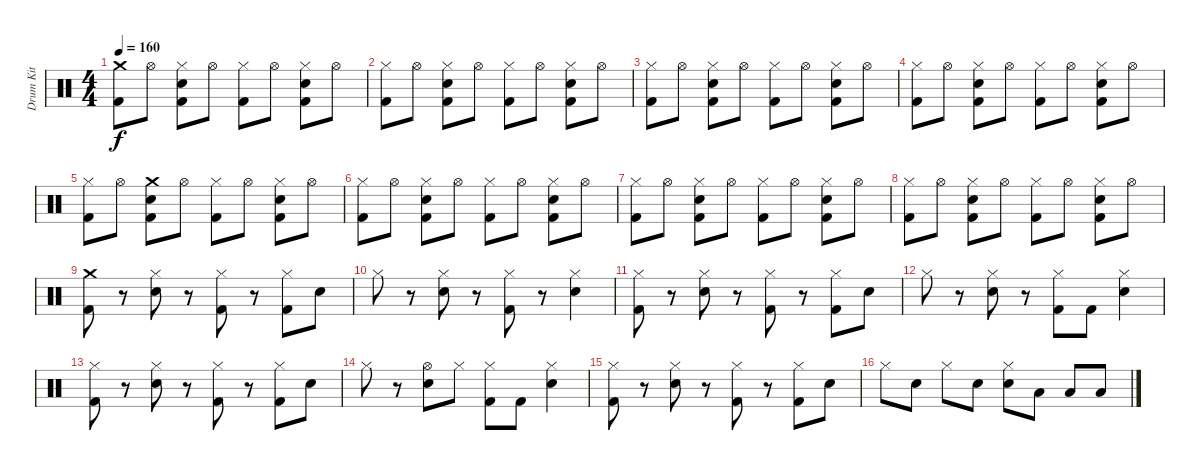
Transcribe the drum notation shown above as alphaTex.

\track ("Drum Kit" "Drum Kit") {instrument percussion}
\staff {score}
\articulation defaults
\ts (4 4)
\tempo 160
\clef neutral
\ks c
("Crash medium (hit)" "Kick (hit) 2").8{dy f} "Hi-Hat (open)".8 ("Hi-Hat (closed)" "Electric Snare (hit)" "Kick (hit) 2").8 "Hi-Hat (open)".8 ("Hi-Hat (closed)" "Kick (hit) 2").8 "Hi-Hat (open)".8 ("Hi-Hat (closed)" "Electric Snare (hit)" "Kick (hit) 2").8 "Hi-Hat (open)".8 |
("Hi-Hat (closed)" "Kick (hit) 2").8 "Hi-Hat (open)".8 ("Hi-Hat (closed)" "Electric Snare (hit)" "Kick (hit) 2").8 "Hi-Hat (open)".8 ("Hi-Hat (closed)" "Kick (hit) 2").8 "Hi-Hat (open)".8 ("Hi-Hat (closed)" "Electric Snare (hit)" "Kick (hit) 2").8 "Hi-Hat (open)".8 |
("Hi-Hat (closed)" "Kick (hit) 2").8 "Hi-Hat (open)".8 ("Hi-Hat (closed)" "Electric Snare (hit)" "Kick (hit) 2").8 "Hi-Hat (open)".8 ("Hi-Hat (closed)" "Kick (hit) 2").8 "Hi-Hat (open)".8 ("Hi-Hat (closed)" "Electric Snare (hit)" "Kick (hit) 2").8 "Hi-Hat (open)".8 |
("Hi-Hat (closed)" "Kick (hit) 2").8 "Hi-Hat (open)".8 ("Hi-Hat (closed)" "Electric Snare (hit)" "Kick (hit) 2").8 "Hi-Hat (open)".8 ("Hi-Hat (closed)" "Kick (hit) 2").8 "Hi-Hat (open)".8 ("Hi-Hat (closed)" "Electric Snare (hit)" "Kick (hit) 2").8 "Hi-Hat (open)".8 |
("Hi-Hat (closed)" "Kick (hit) 2").8 "Hi-Hat (open)".8 ("Crash medium (hit)" "Electric Snare (hit)" "Kick (hit) 2").8 "Hi-Hat (open)".8 ("Hi-Hat (closed)" "Kick (hit) 2").8 "Hi-Hat (open)".8 ("Hi-Hat (closed)" "Electric Snare (hit)" "Kick (hit) 2").8 "Hi-Hat (open)".8 |
("Hi-Hat (closed)" "Kick (hit) 2").8 "Hi-Hat (open)".8 ("Hi-Hat (closed)" "Electric Snare (hit)" "Kick (hit) 2").8 "Hi-Hat (open)".8 ("Hi-Hat (closed)" "Kick (hit) 2").8 "Hi-Hat (open)".8 ("Hi-Hat (closed)" "Electric Snare (hit)" "Kick (hit) 2").8 "Hi-Hat (open)".8 |
("Hi-Hat (closed)" "Kick (hit) 2").8 "Hi-Hat (open)".8 ("Hi-Hat (closed)" "Electric Snare (hit)" "Kick (hit) 2").8 "Hi-Hat (open)".8 ("Hi-Hat (closed)" "Kick (hit) 2").8 "Hi-Hat (open)".8 ("Hi-Hat (closed)" "Electric Snare (hit)" "Kick (hit) 2").8 "Hi-Hat (open)".8 |
("Hi-Hat (closed)" "Kick (hit) 2").8 "Hi-Hat (open)".8 ("Hi-Hat (closed)" "Electric Snare (hit)" "Kick (hit) 2").8 "Hi-Hat (open)".8 ("Hi-Hat (closed)" "Kick (hit) 2").8 "Hi-Hat (open)".8 ("Hi-Hat (closed)" "Electric Snare (hit)" "Kick (hit) 2").8 "Hi-Hat (open)".8 |
("Crash medium (hit)" "Kick (hit) 2").8 r.8 ("Hi-Hat (closed)" "Electric Snare (hit)").8 r.8 ("Hi-Hat (closed)" "Kick (hit) 2").8 r.8 ("Hi-Hat (closed)" "Kick (hit) 2").8 "Electric Snare (hit)".8 |
"Hi-Hat (closed)".8 r.8 ("Hi-Hat (closed)" "Electric Snare (hit)").8 r.8 ("Hi-Hat (closed)" "Kick (hit) 2").8 r.8 ("Hi-Hat (closed)" "Electric Snare (hit)").4 |
("Hi-Hat (closed)" "Kick (hit) 2").8 r.8 ("Hi-Hat (closed)" "Electric Snare (hit)").8 r.8 ("Hi-Hat (closed)" "Kick (hit) 2").8 r.8 ("Hi-Hat (closed)" "Kick (hit) 2").8 "Electric Snare (hit)".8 |
"Hi-Hat (closed)".8 r.8 ("Hi-Hat (closed)" "Electric Snare (hit)").8 r.8 ("Hi-Hat (closed)" "Kick (hit) 2").8 "Kick (hit) 2".8 ("Hi-Hat (closed)" "Electric Snare (hit)").4 |
("Hi-Hat (closed)" "Kick (hit) 2").8 r.8 ("Hi-Hat (closed)" "Electric Snare (hit)").8 r.8 ("Hi-Hat (closed)" "Kick (hit) 2").8 r.8 ("Hi-Hat (closed)" "Kick (hit) 2").8 "Electric Snare (hit)".8 |
"Hi-Hat (closed)".8 r.8 ("Hi-Hat (open)" "Electric Snare (hit)").8 "Hi-Hat (closed)".8 ("Hi-Hat (closed)" "Kick (hit) 2").8 "Kick (hit) 2".8 ("Hi-Hat (closed)" "Electric Snare (hit)").4 |
("Hi-Hat (closed)" "Kick (hit) 2").8 r.8 ("Hi-Hat (closed)" "Electric Snare (hit)").8 r.8 ("Hi-Hat (closed)" "Kick (hit) 2").8 r.8 ("Hi-Hat (closed)" "Kick (hit) 2").8 "Electric Snare (hit)".8 |
"Hi-Hat (closed)".8 "Electric Snare (hit)".8 "Hi-Hat (closed)".8 "Electric Snare (hit)".8 ("Hi-Hat (closed)" "Electric Snare (hit)").8 "Low Tom (hit)".8 "Low Floor Tom (hit)".8 "Low Floor Tom (hit)".8
